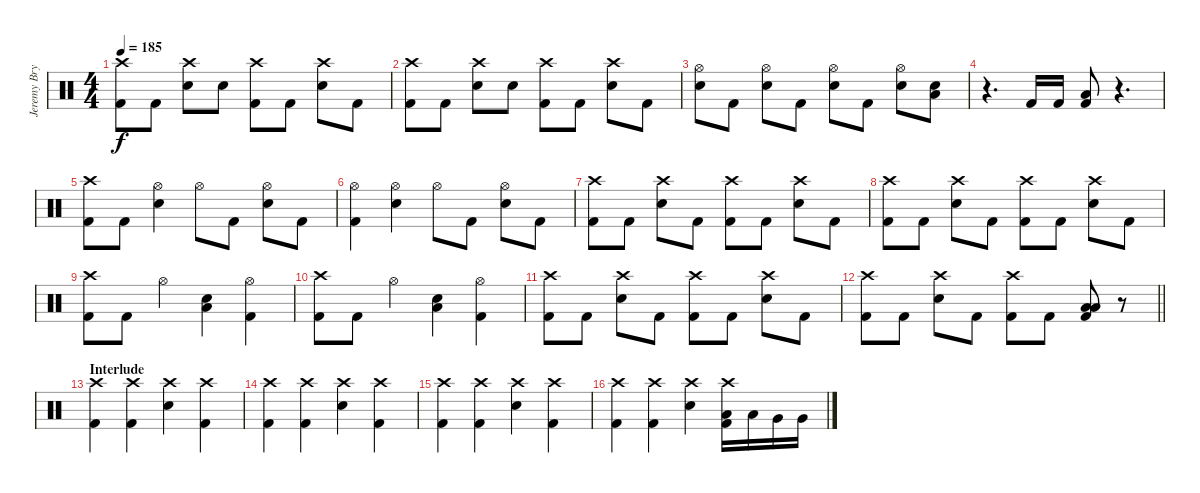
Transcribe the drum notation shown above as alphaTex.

\track ("Jeremy Bryan - Drums" "Jeremy Bry") {instrument percussion}
\staff {score}
\articulation defaults
\ts (4 4)
\tempo 185
\clef neutral
\ks c
("Crash high (hit)" "Kick (hit) 2").8{dy f} "Kick (hit) 2".8 ("Crash high (hit)" "Electric Snare (hit)").8 "Electric Snare (hit)".8 ("Crash high (hit)" "Kick (hit) 2").8 "Kick (hit) 2".8 ("Crash high (hit)" "Electric Snare (hit)").8 "Kick (hit) 2".8 |
("Crash high (hit)" "Kick (hit) 2").8 "Kick (hit) 2".8 ("Crash high (hit)" "Electric Snare (hit)").8 "Electric Snare (hit)".8 ("Crash high (hit)" "Kick (hit) 2").8 "Kick (hit) 2".8 ("Crash high (hit)" "Electric Snare (hit)").8 "Kick (hit) 2".8 |
("Hi-Hat (open)" "Electric Snare (hit)").8 "Kick (hit) 2".8 ("Hi-Hat (open)" "Electric Snare (hit)").8 "Kick (hit) 2".8 ("Hi-Hat (open)" "Electric Snare (hit)").8 "Kick (hit) 2".8 ("Hi-Hat (open)" "Electric Snare (hit)").8 ("Low Floor Tom (hit)" "Electric Snare (hit)").8 |
r.4{d} "Kick (hit) 2".16 "Kick (hit) 2".16 ("Low Floor Tom (hit)" "Kick (hit) 2").8 r.4{d} |
("Crash high (hit)" "Kick (hit) 2").8 "Kick (hit) 2".8 ("Hi-Hat (open)" "Electric Snare (hit)").4 "Hi-Hat (open)".8 "Kick (hit) 2".8 ("Hi-Hat (open)" "Electric Snare (hit)").8 "Kick (hit) 2".8 |
("Hi-Hat (open)" "Kick (hit) 2").4 ("Hi-Hat (open)" "Electric Snare (hit)").4 "Hi-Hat (open)".8 "Kick (hit) 2".8 ("Hi-Hat (open)" "Electric Snare (hit)").8 "Kick (hit) 2".8 |
("Crash high (hit)" "Kick (hit) 2").8 "Kick (hit) 2".8 ("Crash high (hit)" "Electric Snare (hit)").8 "Kick (hit) 2".8 ("Crash high (hit)" "Kick (hit) 2").8 "Kick (hit) 2".8 ("Crash high (hit)" "Electric Snare (hit)").8 "Kick (hit) 2".8 |
("Crash high (hit)" "Kick (hit) 2").8 "Kick (hit) 2".8 ("Crash high (hit)" "Electric Snare (hit)").8 "Kick (hit) 2".8 ("Crash high (hit)" "Kick (hit) 2").8 "Kick (hit) 2".8 ("Crash high (hit)" "Electric Snare (hit)").8 "Kick (hit) 2".8 |
("Crash high (hit)" "Kick (hit) 2").8 "Kick (hit) 2".8 "Hi-Hat (open)".4 ("Low Floor Tom (hit)" "Electric Snare (hit)").4 ("Hi-Hat (open)" "Kick (hit) 2").4 |
("Crash high (hit)" "Kick (hit) 2").8 "Kick (hit) 2".8 "Hi-Hat (open)".4 ("Low Floor Tom (hit)" "Electric Snare (hit)").4 ("Hi-Hat (open)" "Kick (hit) 2").4 |
("Crash high (hit)" "Kick (hit) 2").8 "Kick (hit) 2".8 ("Crash high (hit)" "Electric Snare (hit)").8 "Kick (hit) 2".8 ("Crash high (hit)" "Kick (hit) 2").8 "Kick (hit) 2".8 ("Crash high (hit)" "Electric Snare (hit)").8 "Kick (hit) 2".8 |
\barLineRight lightlight
("Crash high (hit)" "Kick (hit) 2").8 "Kick (hit) 2".8 ("Crash high (hit)" "Electric Snare (hit)").8 "Kick (hit) 2".8 ("Crash high (hit)" "Kick (hit) 2").8 "Kick (hit) 2".8 ("Low Tom (hit)" "Low Floor Tom (hit)" "Kick (hit) 2").8 r.8 |
\section ("" "Interlude")
("Crash high (hit)" "Kick (hit) 2").4 ("Crash high (hit)" "Kick (hit) 2").4 ("Crash high (hit)" "Electric Snare (hit)").4 ("Crash high (hit)" "Kick (hit) 2").4 |
("Crash high (hit)" "Kick (hit) 2").4 ("Crash high (hit)" "Kick (hit) 2").4 ("Crash high (hit)" "Electric Snare (hit)").4 ("Crash high (hit)" "Kick (hit) 2").4 |
("Crash high (hit)" "Kick (hit) 2").4 ("Crash high (hit)" "Kick (hit) 2").4 ("Crash high (hit)" "Electric Snare (hit)").4 ("Crash high (hit)" "Kick (hit) 2").4 |
("Crash high (hit)" "Kick (hit) 2").4 ("Crash high (hit)" "Kick (hit) 2").4 ("Crash high (hit)" "Electric Snare (hit)").4 ("Crash high (hit)" "Low Tom (hit)" "Kick (hit) 2").16 "Low Tom (hit)".16 "Very Low Tom (hit)".16 "Very Low Tom (hit)".16
